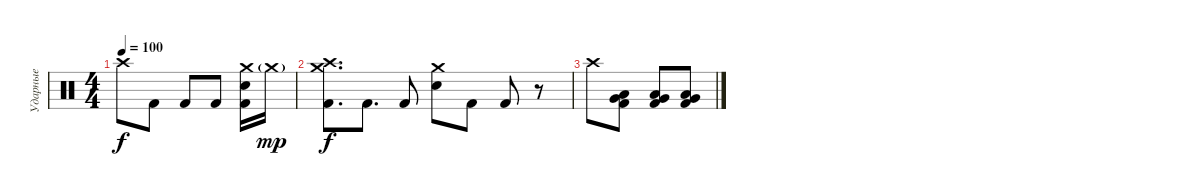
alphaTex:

\track ("Ударные" "Ударные") {instrument percussion}
\staff {score}
\articulation defaults
\ts (4 4)
\tempo 100
\clef neutral
\ks c "Crash high (hit)".8{dy f} "Kick (hit) 2".8 "Kick (hit) 2".8 "Kick (hit) 2".8
("Crash medium (hit)" "Electric Snare (hit)" "Kick (hit) 2").16 "Crash medium (hit)"{g}.16{dy mp} |
("Crash medium (hit)" "Crash high (hit)" "Kick (hit) 2").8{d dy f} "Kick (hit) 2".8{d} "Kick (hit) 2".8 ("Crash medium (hit)" "Electric Snare (hit)").8 "Kick (hit) 2".8 "Kick (hit) 2".8 r.8 |
"Crash high (hit)".8 ("Low Tom (hit)" "Very Low Tom (hit)" "Kick (hit) 2").8 ("Low Tom (hit)" "Very Low Tom (hit)" "Kick (hit) 2").8 ("Low Tom (hit)" "Very Low Tom (hit)" "Kick (hit) 2").8
